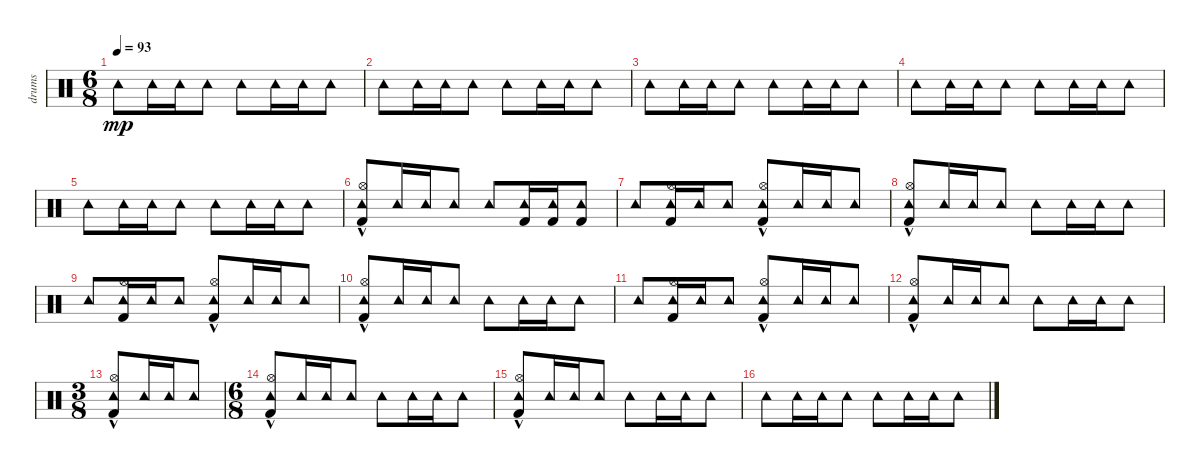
\track ("drums" "drums") {instrument percussion}
\staff {score}
\articulation defaults
\ts (6 8)
\tempo 93
\clef neutral
\ks c "Tambourine (hit)".8{dy mp} "Tambourine (hit)".16 "Tambourine (hit)".16 "Tambourine (hit)".8 "Tambourine (hit)".8 "Tambourine (hit)".16 "Tambourine (hit)".16 "Tambourine (hit)".8
|
"Tambourine (hit)".8 "Tambourine (hit)".16 "Tambourine (hit)".16 "Tambourine (hit)".8 "Tambourine (hit)".8 "Tambourine (hit)".16 "Tambourine (hit)".16 "Tambourine (hit)".8 |
"Tambourine (hit)".8 "Tambourine (hit)".16 "Tambourine (hit)".16 "Tambourine (hit)".8 "Tambourine (hit)".8 "Tambourine (hit)".16 "Tambourine (hit)".16 "Tambourine (hit)".8 |
"Tambourine (hit)".8 "Tambourine (hit)".16 "Tambourine (hit)".16 "Tambourine (hit)".8 "Tambourine (hit)".8 "Tambourine (hit)".16 "Tambourine (hit)".16 "Tambourine (hit)".8 |
"Tambourine (hit)".8 "Tambourine (hit)".16 "Tambourine (hit)".16 "Tambourine (hit)".8 "Tambourine (hit)".8 "Tambourine (hit)".16 "Tambourine (hit)".16 "Tambourine (hit)".8 |
("Hi-Hat (open)" "Tambourine (hit)" "Kick (hit) 2"{hac}).8 "Tambourine (hit)".16 "Tambourine (hit)".16 "Tambourine (hit)".8 "Tambourine (hit)".8 ("Tambourine (hit)" "Kick (hit) 2").16 ("Tambourine (hit)" "Kick (hit) 2").16 ("Tambourine (hit)" "Kick (hit) 2").8 |
"Tambourine (hit)".8 ("Hi-Hat (open)" "Tambourine (hit)" "Kick (hit) 2").16 "Tambourine (hit)".16 "Tambourine (hit)".8 ("Hi-Hat (open)" "Tambourine (hit)" "Kick (hit) 2"{hac}).8 "Tambourine (hit)".16 "Tambourine (hit)".16 "Tambourine (hit)".8 |
("Hi-Hat (open)" "Tambourine (hit)" "Kick (hit) 2"{hac}).8 "Tambourine (hit)".16 "Tambourine (hit)".16 "Tambourine (hit)".8 "Tambourine (hit)".8 "Tambourine (hit)".16 "Tambourine (hit)".16 "Tambourine (hit)".8 |
"Tambourine (hit)".8 ("Hi-Hat (open)" "Tambourine (hit)" "Kick (hit) 2").16 "Tambourine (hit)".16 "Tambourine (hit)".8 ("Hi-Hat (open)" "Tambourine (hit)" "Kick (hit) 2"{hac}).8 "Tambourine (hit)".16 "Tambourine (hit)".16 "Tambourine (hit)".8 |
("Hi-Hat (open)" "Tambourine (hit)" "Kick (hit) 2"{hac}).8 "Tambourine (hit)".16 "Tambourine (hit)".16 "Tambourine (hit)".8 "Tambourine (hit)".8 "Tambourine (hit)".16 "Tambourine (hit)".16 "Tambourine (hit)".8 |
"Tambourine (hit)".8 ("Hi-Hat (open)" "Tambourine (hit)" "Kick (hit) 2").16 "Tambourine (hit)".16 "Tambourine (hit)".8 ("Hi-Hat (open)" "Tambourine (hit)" "Kick (hit) 2"{hac}).8 "Tambourine (hit)".16 "Tambourine (hit)".16 "Tambourine (hit)".8 |
("Hi-Hat (open)" "Tambourine (hit)" "Kick (hit) 2"{hac}).8 "Tambourine (hit)".16 "Tambourine (hit)".16 "Tambourine (hit)".8 "Tambourine (hit)".8 "Tambourine (hit)".16 "Tambourine (hit)".16 "Tambourine (hit)".8 |
\ts (3 8)
("Hi-Hat (open)" "Tambourine (hit)" "Kick (hit) 2"{hac}).8 "Tambourine (hit)".16 "Tambourine (hit)".16 "Tambourine (hit)".8 |
\ts (6 8)
("Hi-Hat (open)" "Tambourine (hit)" "Kick (hit) 2"{hac}).8 "Tambourine (hit)".16 "Tambourine (hit)".16 "Tambourine (hit)".8 "Tambourine (hit)".8 "Tambourine (hit)".16 "Tambourine (hit)".16 "Tambourine (hit)".8 |
("Hi-Hat (open)" "Tambourine (hit)" "Kick (hit) 2"{hac}).8 "Tambourine (hit)".16 "Tambourine (hit)".16 "Tambourine (hit)".8 "Tambourine (hit)".8 "Tambourine (hit)".16 "Tambourine (hit)".16 "Tambourine (hit)".8 |
"Tambourine (hit)".8 "Tambourine (hit)".16 "Tambourine (hit)".16 "Tambourine (hit)".8 "Tambourine (hit)".8 "Tambourine (hit)".16 "Tambourine (hit)".16 "Tambourine (hit)".8
